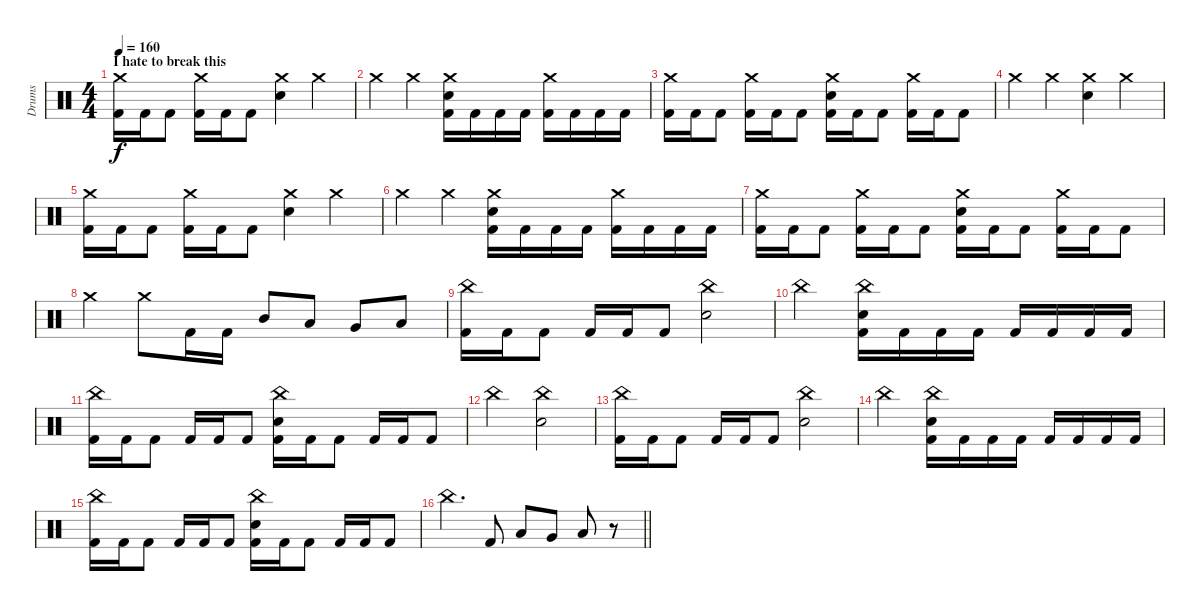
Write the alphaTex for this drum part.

\track ("Drums" "Drums") {instrument percussion}
\staff {score}
\articulation defaults
\ts (4 4)
\section ("" "I hate to break this")
\tempo 160
\clef neutral
\ks c
("Crash medium (hit)" "Kick (hit) 2").16{dy f} "Kick (hit) 2".16 "Kick (hit) 2".8 ("Crash medium (hit)" "Kick (hit) 2").16 "Kick (hit) 2".16 "Kick (hit) 2".8 ("Crash medium (hit)" "Electric Snare (hit)").4 "Crash medium (hit)".4 |
"Crash medium (hit)".4 "Crash medium (hit)".4 ("Crash medium (hit)" "Electric Snare (hit)" "Kick (hit) 2").16 "Kick (hit) 2".16 "Kick (hit) 2".16 "Kick (hit) 2".16 ("Crash medium (hit)" "Kick (hit) 2").16 "Kick (hit) 2".16 "Kick (hit) 2".16 "Kick (hit) 2".16 |
("Crash medium (hit)" "Kick (hit) 2").16 "Kick (hit) 2".16 "Kick (hit) 2".8 ("Crash medium (hit)" "Kick (hit) 2").16 "Kick (hit) 2".16 "Kick (hit) 2".8 ("Crash medium (hit)" "Electric Snare (hit)" "Kick (hit) 2").16 "Kick (hit) 2".16 "Kick (hit) 2".8 ("Crash medium (hit)" "Kick (hit) 2").16 "Kick (hit) 2".16 "Kick (hit) 2".8 |
"Crash medium (hit)".4 "Crash medium (hit)".4 ("Crash medium (hit)" "Electric Snare (hit)").4 "Crash medium (hit)".4 |
("Crash medium (hit)" "Kick (hit) 2").16 "Kick (hit) 2".16 "Kick (hit) 2".8 ("Crash medium (hit)" "Kick (hit) 2").16 "Kick (hit) 2".16 "Kick (hit) 2".8 ("Crash medium (hit)" "Electric Snare (hit)").4 "Crash medium (hit)".4 |
"Crash medium (hit)".4 "Crash medium (hit)".4 ("Crash medium (hit)" "Electric Snare (hit)" "Kick (hit) 2").16 "Kick (hit) 2".16 "Kick (hit) 2".16 "Kick (hit) 2".16 ("Crash medium (hit)" "Kick (hit) 2").16 "Kick (hit) 2".16 "Kick (hit) 2".16 "Kick (hit) 2".16 |
("Crash medium (hit)" "Kick (hit) 2").16 "Kick (hit) 2".16 "Kick (hit) 2".8 ("Crash medium (hit)" "Kick (hit) 2").16 "Kick (hit) 2".16 "Kick (hit) 2".8 ("Crash medium (hit)" "Electric Snare (hit)" "Kick (hit) 2").16 "Kick (hit) 2".16 "Kick (hit) 2".8 ("Crash medium (hit)" "Kick (hit) 2").16 "Kick (hit) 2".16 "Kick (hit) 2".8 |
"Crash medium (hit)".4 "Crash medium (hit)".8 "Kick (hit) 2".16 "Kick (hit) 2".16 "Mid Tom (hit)".8 "Low Tom (hit)".8 "Very Low Tom (hit)".8 "Low Floor Tom (hit)".8 |
("China (hit)" "Kick (hit) 2").16 "Kick (hit) 2".16 "Kick (hit) 2".8 "Kick (hit) 2".16 "Kick (hit) 2".16 "Kick (hit) 2".8 ("China (hit)" "Electric Snare (hit)").2 |
"China (hit)".2 ("China (hit)" "Electric Snare (hit)" "Kick (hit) 2").16 "Kick (hit) 2".16 "Kick (hit) 2".16 "Kick (hit) 2".16 "Kick (hit) 2".16 "Kick (hit) 2".16 "Kick (hit) 2".16 "Kick (hit) 2".16 |
("China (hit)" "Kick (hit) 2").16 "Kick (hit) 2".16 "Kick (hit) 2".8 "Kick (hit) 2".16 "Kick (hit) 2".16 "Kick (hit) 2".8 ("China (hit)" "Electric Snare (hit)" "Kick (hit) 2").16 "Kick (hit) 2".16 "Kick (hit) 2".8 "Kick (hit) 2".16 "Kick (hit) 2".16 "Kick (hit) 2".8 |
"China (hit)".2 ("China (hit)" "Electric Snare (hit)").2 |
("China (hit)" "Kick (hit) 2").16 "Kick (hit) 2".16 "Kick (hit) 2".8 "Kick (hit) 2".16 "Kick (hit) 2".16 "Kick (hit) 2".8 ("China (hit)" "Electric Snare (hit)").2 |
"China (hit)".2 ("China (hit)" "Electric Snare (hit)" "Kick (hit) 2").16 "Kick (hit) 2".16 "Kick (hit) 2".16 "Kick (hit) 2".16 "Kick (hit) 2".16 "Kick (hit) 2".16 "Kick (hit) 2".16 "Kick (hit) 2".16 |
("China (hit)" "Kick (hit) 2").16 "Kick (hit) 2".16 "Kick (hit) 2".8 "Kick (hit) 2".16 "Kick (hit) 2".16 "Kick (hit) 2".8 ("China (hit)" "Electric Snare (hit)" "Kick (hit) 2").16 "Kick (hit) 2".16 "Kick (hit) 2".8 "Kick (hit) 2".16 "Kick (hit) 2".16 "Kick (hit) 2".8 |
\barLineRight lightlight "China (hit)".4{d} "Kick (hit) 2".8 "Low Tom (hit)".8 "Very Low Tom (hit)".8 "Low Floor Tom (hit)".8
r.8
